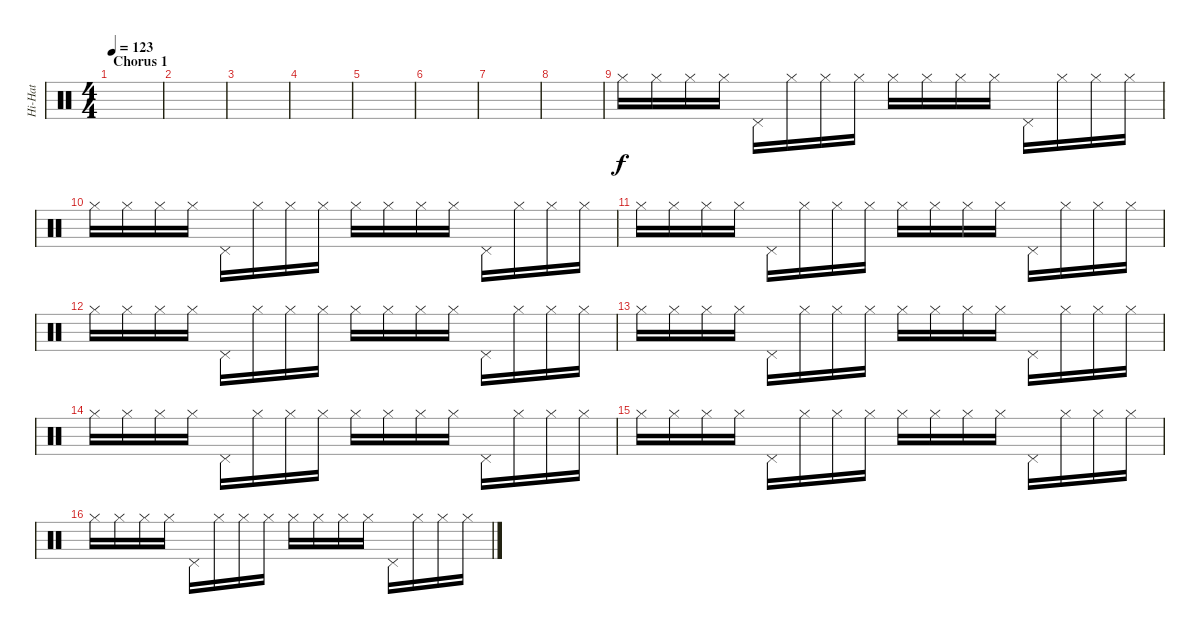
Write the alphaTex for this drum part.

\track ("Hi-Hat" "Hi-Hat") {instrument percussion}
\staff {score}
\articulation defaults
\ts (4 4)
\section ("" "Chorus 1")
\tempo 123
\clef neutral
\ks c
|
|
|
|
|
|
|
|
"Hi-Hat (closed)".16 "Hi-Hat (closed)".16 "Hi-Hat (closed)".16 "Hi-Hat (closed)".16 "Pedal Hi-Hat (hit)".16 "Hi-Hat (closed)".16 "Hi-Hat (closed)".16 "Hi-Hat (closed)".16 "Hi-Hat (closed)".16 "Hi-Hat (closed)".16 "Hi-Hat (closed)".16 "Hi-Hat (closed)".16 "Pedal Hi-Hat (hit)".16 "Hi-Hat (closed)".16 "Hi-Hat (closed)".16 "Hi-Hat (closed)".16 |
"Hi-Hat (closed)".16 "Hi-Hat (closed)".16 "Hi-Hat (closed)".16 "Hi-Hat (closed)".16 "Pedal Hi-Hat (hit)".16 "Hi-Hat (closed)".16 "Hi-Hat (closed)".16 "Hi-Hat (closed)".16 "Hi-Hat (closed)".16 "Hi-Hat (closed)".16 "Hi-Hat (closed)".16 "Hi-Hat (closed)".16 "Pedal Hi-Hat (hit)".16 "Hi-Hat (closed)".16 "Hi-Hat (closed)".16 "Hi-Hat (closed)".16 |
"Hi-Hat (closed)".16 "Hi-Hat (closed)".16 "Hi-Hat (closed)".16 "Hi-Hat (closed)".16 "Pedal Hi-Hat (hit)".16 "Hi-Hat (closed)".16 "Hi-Hat (closed)".16 "Hi-Hat (closed)".16 "Hi-Hat (closed)".16 "Hi-Hat (closed)".16 "Hi-Hat (closed)".16 "Hi-Hat (closed)".16 "Pedal Hi-Hat (hit)".16 "Hi-Hat (closed)".16 "Hi-Hat (closed)".16 "Hi-Hat (closed)".16 |
"Hi-Hat (closed)".16 "Hi-Hat (closed)".16 "Hi-Hat (closed)".16 "Hi-Hat (closed)".16 "Pedal Hi-Hat (hit)".16 "Hi-Hat (closed)".16 "Hi-Hat (closed)".16 "Hi-Hat (closed)".16 "Hi-Hat (closed)".16 "Hi-Hat (closed)".16 "Hi-Hat (closed)".16 "Hi-Hat (closed)".16 "Pedal Hi-Hat (hit)".16 "Hi-Hat (closed)".16 "Hi-Hat (closed)".16 "Hi-Hat (closed)".16 |
"Hi-Hat (closed)".16 "Hi-Hat (closed)".16 "Hi-Hat (closed)".16 "Hi-Hat (closed)".16 "Pedal Hi-Hat (hit)".16 "Hi-Hat (closed)".16 "Hi-Hat (closed)".16 "Hi-Hat (closed)".16 "Hi-Hat (closed)".16 "Hi-Hat (closed)".16 "Hi-Hat (closed)".16 "Hi-Hat (closed)".16 "Pedal Hi-Hat (hit)".16 "Hi-Hat (closed)".16 "Hi-Hat (closed)".16 "Hi-Hat (closed)".16 |
"Hi-Hat (closed)".16 "Hi-Hat (closed)".16 "Hi-Hat (closed)".16 "Hi-Hat (closed)".16 "Pedal Hi-Hat (hit)".16 "Hi-Hat (closed)".16 "Hi-Hat (closed)".16 "Hi-Hat (closed)".16 "Hi-Hat (closed)".16 "Hi-Hat (closed)".16 "Hi-Hat (closed)".16 "Hi-Hat (closed)".16 "Pedal Hi-Hat (hit)".16 "Hi-Hat (closed)".16 "Hi-Hat (closed)".16 "Hi-Hat (closed)".16 |
"Hi-Hat (closed)".16 "Hi-Hat (closed)".16 "Hi-Hat (closed)".16 "Hi-Hat (closed)".16 "Pedal Hi-Hat (hit)".16 "Hi-Hat (closed)".16 "Hi-Hat (closed)".16 "Hi-Hat (closed)".16 "Hi-Hat (closed)".16 "Hi-Hat (closed)".16 "Hi-Hat (closed)".16 "Hi-Hat (closed)".16 "Pedal Hi-Hat (hit)".16 "Hi-Hat (closed)".16 "Hi-Hat (closed)".16 "Hi-Hat (closed)".16 |
"Hi-Hat (closed)".16 "Hi-Hat (closed)".16 "Hi-Hat (closed)".16 "Hi-Hat (closed)".16 "Pedal Hi-Hat (hit)".16 "Hi-Hat (closed)".16 "Hi-Hat (closed)".16 "Hi-Hat (closed)".16 "Hi-Hat (closed)".16 "Hi-Hat (closed)".16 "Hi-Hat (closed)".16 "Hi-Hat (closed)".16 "Pedal Hi-Hat (hit)".16 "Hi-Hat (closed)".16 "Hi-Hat (closed)".16 "Hi-Hat (closed)".16
